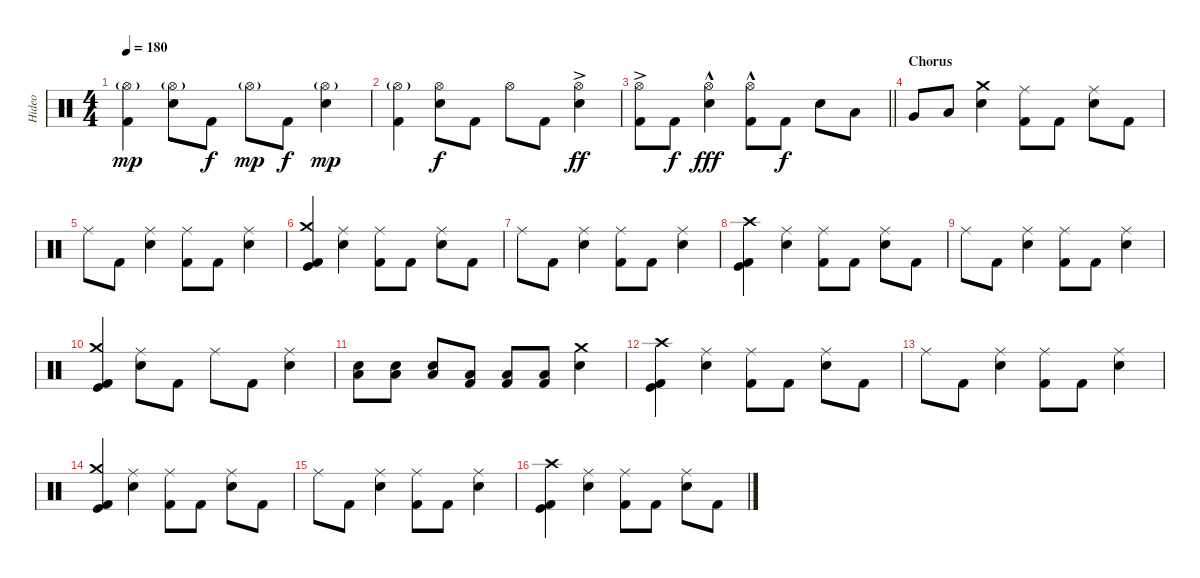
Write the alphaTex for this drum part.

\track ("Hideo" "Hideo") {instrument percussion}
\staff {score}
\articulation defaults
\ts (4 4)
\tempo 180
\clef neutral
\ks c
("Hi-Hat (open)"{g} "Kick (hit) 2").4{dy mp} ("Hi-Hat (open)"{g} "Electric Snare (hit)").8 "Kick (hit) 2".8{dy f} "Hi-Hat (open)"{g}.8{dy mp} "Kick (hit) 2".8{dy f} ("Hi-Hat (open)"{g} "Electric Snare (hit)").4{dy mp} |
("Hi-Hat (open)"{g} "Kick (hit) 2").4 ("Hi-Hat (open)" "Electric Snare (hit)").8{dy f} "Kick (hit) 2".8 "Hi-Hat (open)".8 "Kick (hit) 2".8 ("Hi-Hat (open)"{ac} "Electric Snare (hit)").4{dy ff} |
\barLineRight lightlight
("Hi-Hat (open)"{ac} "Kick (hit) 2").8 "Kick (hit) 2".8{dy f} ("Hi-Hat (open)"{hac} "Electric Snare (hit)").4{dy fff} ("Hi-Hat (open)"{hac} "Kick (hit) 2").8 "Kick (hit) 2".8{dy f} "Electric Snare (hit)".8 "Low Tom (hit)".8 |
\section ("" "Chorus")
"Very Low Tom (hit)".8 "Low Floor Tom (hit)".8 ("Crash medium (hit)" "Electric Snare (hit)").4 ("Ride (middle)" "Kick (hit) 2").8 "Kick (hit) 2".8 ("Ride (middle)" "Electric Snare (hit)").8 "Kick (hit) 2".8 |
"Ride (middle)".8 "Kick (hit) 2".8 ("Ride (middle)" "Electric Snare (hit)").4 ("Ride (middle)" "Kick (hit) 2").8 "Kick (hit) 2".8 ("Ride (middle)" "Electric Snare (hit)").4 |
("Crash medium (hit)" "Kick (hit) 2" "Kick (hit)").4 ("Ride (middle)" "Electric Snare (hit)").4 ("Ride (middle)" "Kick (hit) 2").8 "Kick (hit) 2".8 ("Ride (middle)" "Electric Snare (hit)").8 "Kick (hit) 2".8 |
"Ride (middle)".8 "Kick (hit) 2".8 ("Ride (middle)" "Electric Snare (hit)").4 ("Ride (middle)" "Kick (hit) 2").8 "Kick (hit) 2".8 ("Ride (middle)" "Electric Snare (hit)").4 |
("Crash high (hit)" "Kick (hit) 2" "Kick (hit)").4 ("Ride (middle)" "Electric Snare (hit)").4 ("Ride (middle)" "Kick (hit) 2").8 "Kick (hit) 2".8 ("Ride (middle)" "Electric Snare (hit)").8 "Kick (hit) 2".8 |
"Ride (middle)".8 "Kick (hit) 2".8 ("Ride (middle)" "Electric Snare (hit)").4 ("Ride (middle)" "Kick (hit) 2").8 "Kick (hit) 2".8 ("Ride (middle)" "Electric Snare (hit)").4 |
("Crash medium (hit)" "Kick (hit) 2" "Kick (hit)").4 ("Ride (middle)" "Electric Snare (hit)").8 "Kick (hit) 2".8 "Ride (middle)".8 "Kick (hit) 2".8 ("Ride (middle)" "Electric Snare (hit)").4 |
("Low Floor Tom (hit)" "Electric Snare (hit)").8 ("Low Floor Tom (hit)" "Electric Snare (hit)").8 ("Low Floor Tom (hit)" "Electric Snare (hit)").8 ("Low Tom (hit)" "Kick (hit) 2").8 ("Low Tom (hit)" "Kick (hit) 2").8 ("Low Tom (hit)" "Kick (hit) 2").8 ("Crash medium (hit)" "Electric Snare (hit)").4 |
("Crash high (hit)" "Kick (hit) 2" "Kick (hit)").4 ("Ride (middle)" "Electric Snare (hit)").4 ("Ride (middle)" "Kick (hit) 2").8 "Kick (hit) 2".8 ("Ride (middle)" "Electric Snare (hit)").8 "Kick (hit) 2".8 |
"Ride (middle)".8 "Kick (hit) 2".8 ("Ride (middle)" "Electric Snare (hit)").4 ("Ride (middle)" "Kick (hit) 2").8 "Kick (hit) 2".8 ("Ride (middle)" "Electric Snare (hit)").4 |
("Crash medium (hit)" "Kick (hit) 2" "Kick (hit)").4 ("Ride (middle)" "Electric Snare (hit)").4 ("Ride (middle)" "Kick (hit) 2").8 "Kick (hit) 2".8 ("Ride (middle)" "Electric Snare (hit)").8 "Kick (hit) 2".8 |
"Ride (middle)".8 "Kick (hit) 2".8 ("Ride (middle)" "Electric Snare (hit)").4 ("Ride (middle)" "Kick (hit) 2").8 "Kick (hit) 2".8 ("Ride (middle)" "Electric Snare (hit)").4 |
("Crash high (hit)" "Kick (hit) 2" "Kick (hit)").4 ("Ride (middle)" "Electric Snare (hit)").4 ("Ride (middle)" "Kick (hit) 2").8 "Kick (hit) 2".8 ("Ride (middle)" "Electric Snare (hit)").8 "Kick (hit) 2".8
